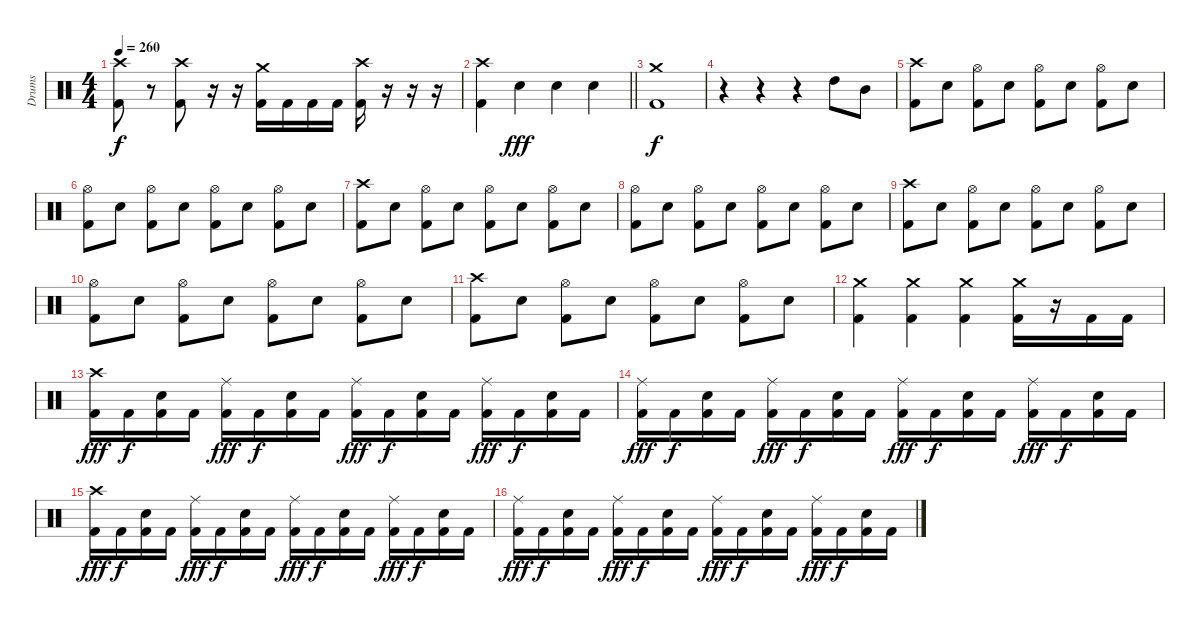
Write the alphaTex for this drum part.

\track ("Drums" "Drums") {instrument percussion}
\staff {score}
\articulation defaults
\ts (4 4)
\tempo 260
\clef neutral
\ks c
("Crash high (hit)" "Kick (hit) 2").8{dy f} r.8 ("Crash high (hit)" "Kick (hit) 2").8 r.16 r.16 ("Crash medium (hit)" "Kick (hit) 2").16 "Kick (hit) 2".16 "Kick (hit) 2".16 "Kick (hit) 2".16 ("Crash high (hit)" "Kick (hit) 2").16 r.16 r.16 r.16 |
\barLineRight lightlight
("Crash high (hit)" "Kick (hit) 2").4 "Electric Snare (hit)".4{dy fff} "Electric Snare (hit)".4 "Electric Snare (hit)".4 |
("Crash medium (hit)" "Kick (hit) 2").1{dy f} |
r.4 r.4 r.4 "High Tom (hit)".8 "Mid Tom (hit)".8 |
("Crash high (hit)" "Kick (hit) 2").8 "Electric Snare (hit)".8 ("Hi-Hat (open)" "Kick (hit) 2").8 "Electric Snare (hit)".8 ("Hi-Hat (open)" "Kick (hit) 2").8 "Electric Snare (hit)".8 ("Hi-Hat (open)" "Kick (hit) 2").8 "Electric Snare (hit)".8 |
("Hi-Hat (open)" "Kick (hit) 2").8 "Electric Snare (hit)".8 ("Hi-Hat (open)" "Kick (hit) 2").8 "Electric Snare (hit)".8 ("Hi-Hat (open)" "Kick (hit) 2").8 "Electric Snare (hit)".8 ("Hi-Hat (open)" "Kick (hit) 2").8 "Electric Snare (hit)".8 |
("Crash high (hit)" "Kick (hit) 2").8 "Electric Snare (hit)".8 ("Hi-Hat (open)" "Kick (hit) 2").8 "Electric Snare (hit)".8 ("Hi-Hat (open)" "Kick (hit) 2").8 "Electric Snare (hit)".8 ("Hi-Hat (open)" "Kick (hit) 2").8 "Electric Snare (hit)".8 |
("Hi-Hat (open)" "Kick (hit) 2").8 "Electric Snare (hit)".8 ("Hi-Hat (open)" "Kick (hit) 2").8 "Electric Snare (hit)".8 ("Hi-Hat (open)" "Kick (hit) 2").8 "Electric Snare (hit)".8 ("Hi-Hat (open)" "Kick (hit) 2").8 "Electric Snare (hit)".8 |
("Crash high (hit)" "Kick (hit) 2").8 "Electric Snare (hit)".8 ("Hi-Hat (open)" "Kick (hit) 2").8 "Electric Snare (hit)".8 ("Hi-Hat (open)" "Kick (hit) 2").8 "Electric Snare (hit)".8 ("Hi-Hat (open)" "Kick (hit) 2").8 "Electric Snare (hit)".8 |
("Hi-Hat (open)" "Kick (hit) 2").8 "Electric Snare (hit)".8 ("Hi-Hat (open)" "Kick (hit) 2").8 "Electric Snare (hit)".8 ("Hi-Hat (open)" "Kick (hit) 2").8 "Electric Snare (hit)".8 ("Hi-Hat (open)" "Kick (hit) 2").8 "Electric Snare (hit)".8 |
("Crash high (hit)" "Kick (hit) 2").8 "Electric Snare (hit)".8 ("Hi-Hat (open)" "Kick (hit) 2").8 "Electric Snare (hit)".8 ("Hi-Hat (open)" "Kick (hit) 2").8 "Electric Snare (hit)".8 ("Hi-Hat (open)" "Kick (hit) 2").8 "Electric Snare (hit)".8 |
("Crash medium (hit)" "Kick (hit) 2").4 ("Crash medium (hit)" "Kick (hit) 2").4 ("Crash medium (hit)" "Kick (hit) 2").4 ("Crash medium (hit)" "Kick (hit) 2").16 r.16 "Kick (hit) 2".16 "Kick (hit) 2".16 |
("Crash high (hit)" "Kick (hit) 2").16{dy fff} "Kick (hit) 2".16{dy f} ("Electric Snare (hit)" "Kick (hit) 2").16 "Kick (hit) 2".16 ("Ride (middle)" "Kick (hit) 2").16{dy fff} "Kick (hit) 2".16{dy f} ("Electric Snare (hit)" "Kick (hit) 2").16 "Kick (hit) 2".16 ("Ride (middle)" "Kick (hit) 2").16{dy fff} "Kick (hit) 2".16{dy f} ("Electric Snare (hit)" "Kick (hit) 2").16 "Kick (hit) 2".16 ("Ride (middle)" "Kick (hit) 2").16{dy fff} "Kick (hit) 2".16{dy f} ("Electric Snare (hit)" "Kick (hit) 2").16 "Kick (hit) 2".16 |
("Ride (middle)" "Kick (hit) 2").16{dy fff} "Kick (hit) 2".16{dy f} ("Electric Snare (hit)" "Kick (hit) 2").16 "Kick (hit) 2".16 ("Ride (middle)" "Kick (hit) 2").16{dy fff} "Kick (hit) 2".16{dy f} ("Electric Snare (hit)" "Kick (hit) 2").16 "Kick (hit) 2".16 ("Ride (middle)" "Kick (hit) 2").16{dy fff} "Kick (hit) 2".16{dy f} ("Electric Snare (hit)" "Kick (hit) 2").16 "Kick (hit) 2".16 ("Ride (middle)" "Kick (hit) 2").16{dy fff} "Kick (hit) 2".16{dy f} ("Electric Snare (hit)" "Kick (hit) 2").16 "Kick (hit) 2".16 |
("Crash high (hit)" "Kick (hit) 2").16{dy fff} "Kick (hit) 2".16{dy f} ("Electric Snare (hit)" "Kick (hit) 2").16 "Kick (hit) 2".16 ("Ride (middle)" "Kick (hit) 2").16{dy fff} "Kick (hit) 2".16{dy f} ("Electric Snare (hit)" "Kick (hit) 2").16 "Kick (hit) 2".16 ("Ride (middle)" "Kick (hit) 2").16{dy fff} "Kick (hit) 2".16{dy f} ("Electric Snare (hit)" "Kick (hit) 2").16 "Kick (hit) 2".16 ("Ride (middle)" "Kick (hit) 2").16{dy fff} "Kick (hit) 2".16{dy f} ("Electric Snare (hit)" "Kick (hit) 2").16 "Kick (hit) 2".16 |
("Ride (middle)" "Kick (hit) 2").16{dy fff} "Kick (hit) 2".16{dy f} ("Electric Snare (hit)" "Kick (hit) 2").16 "Kick (hit) 2".16 ("Ride (middle)" "Kick (hit) 2").16{dy fff} "Kick (hit) 2".16{dy f} ("Electric Snare (hit)" "Kick (hit) 2").16 "Kick (hit) 2".16 ("Ride (middle)" "Kick (hit) 2").16{dy fff} "Kick (hit) 2".16{dy f} ("Electric Snare (hit)" "Kick (hit) 2").16 "Kick (hit) 2".16 ("Ride (middle)" "Kick (hit) 2").16{dy fff} "Kick (hit) 2".16{dy f} ("Electric Snare (hit)" "Kick (hit) 2").16 "Kick (hit) 2".16
